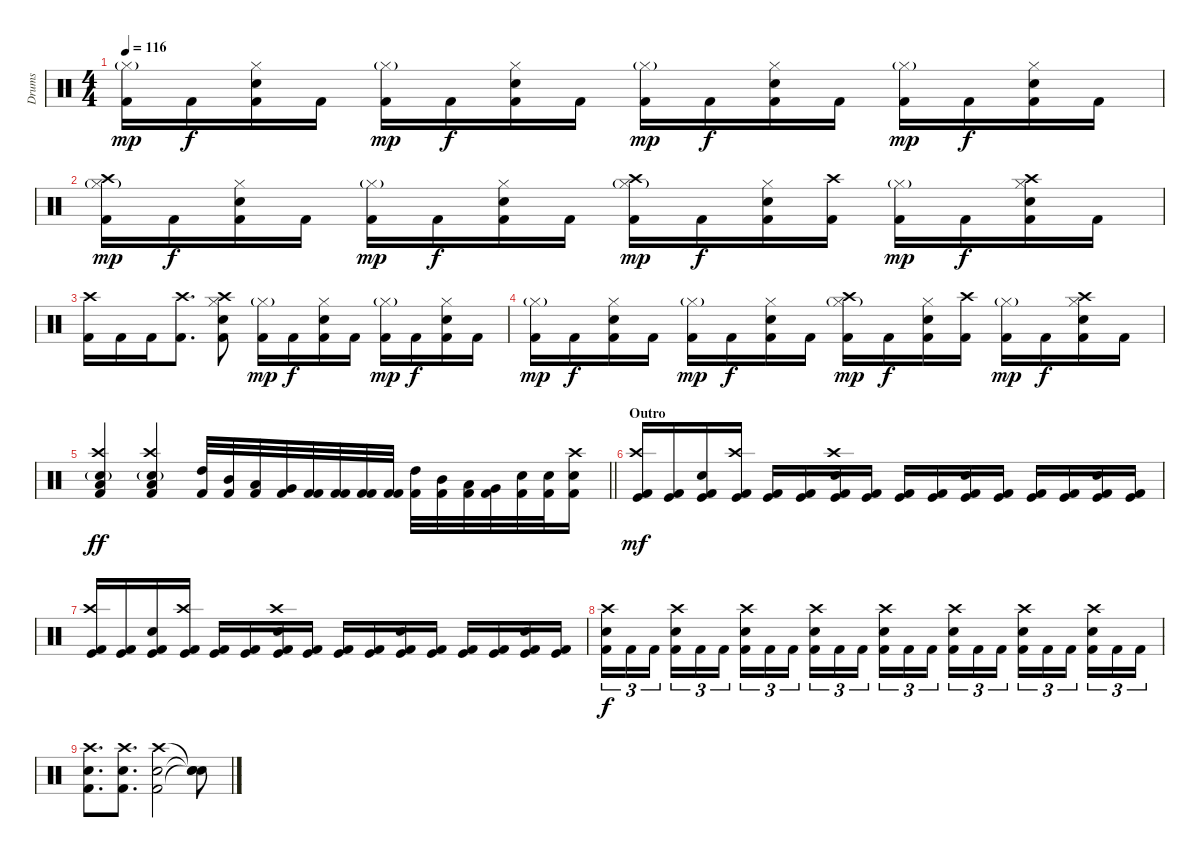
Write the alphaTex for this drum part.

\track ("Drums" "Drums") {instrument percussion}
\staff {score}
\articulation defaults
\ts (4 4)
\tempo 116
\clef neutral
\ks c
("Kick (hit) 2" "Hi-Hat (closed)"{g}).16{dy mp} "Kick (hit) 2".16{dy f} ("Kick (hit) 2" "Electric Snare (hit)" "Hi-Hat (closed)").16 "Kick (hit) 2".16 ("Kick (hit) 2" "Hi-Hat (closed)"{g}).16{dy mp} "Kick (hit) 2".16{dy f} ("Kick (hit) 2" "Electric Snare (hit)" "Hi-Hat (closed)").16 "Kick (hit) 2".16 ("Kick (hit) 2" "Hi-Hat (closed)"{g}).16{dy mp} "Kick (hit) 2".16{dy f} ("Kick (hit) 2" "Electric Snare (hit)" "Hi-Hat (closed)").16 "Kick (hit) 2".16 ("Kick (hit) 2" "Hi-Hat (closed)"{g}).16{dy mp} "Kick (hit) 2".16{dy f} ("Kick (hit) 2" "Electric Snare (hit)" "Hi-Hat (closed)").16 "Kick (hit) 2".16 |
("Kick (hit) 2" "Hi-Hat (closed)"{g} "Crash high (hit)").16{dy mp} "Kick (hit) 2".16{dy f} ("Kick (hit) 2" "Electric Snare (hit)" "Hi-Hat (closed)").16 "Kick (hit) 2".16 ("Kick (hit) 2" "Hi-Hat (closed)"{g}).16{dy mp} "Kick (hit) 2".16{dy f} ("Kick (hit) 2" "Electric Snare (hit)" "Hi-Hat (closed)").16 "Kick (hit) 2".16 ("Kick (hit) 2" "Hi-Hat (closed)"{g} "Crash high (hit)").16{dy mp} "Kick (hit) 2".16{dy f} ("Kick (hit) 2" "Electric Snare (hit)" "Hi-Hat (closed)").16 ("Kick (hit) 2" "Crash high (hit)").16 ("Kick (hit) 2" "Hi-Hat (closed)"{g}).16{dy mp} "Kick (hit) 2".16{dy f} ("Kick (hit) 2" "Electric Snare (hit)" "Hi-Hat (closed)" "Crash high (hit)").16 "Kick (hit) 2".16 |
("Kick (hit) 2" "Crash high (hit)").16 "Kick (hit) 2".16 "Kick (hit) 2".16 ("Kick (hit) 2" "Crash high (hit)").8{d} ("Kick (hit) 2" "Crash high (hit)" "Hi-Hat (closed)" "Electric Snare (hit)").8 ("Kick (hit) 2" "Hi-Hat (closed)"{g}).16{dy mp} "Kick (hit) 2".16{dy f} ("Kick (hit) 2" "Electric Snare (hit)" "Hi-Hat (closed)").16 "Kick (hit) 2".16 ("Kick (hit) 2" "Hi-Hat (closed)"{g}).16{dy mp} "Kick (hit) 2".16{dy f} ("Kick (hit) 2" "Electric Snare (hit)" "Hi-Hat (closed)").16 "Kick (hit) 2".16 |
("Kick (hit) 2" "Hi-Hat (closed)"{g}).16{dy mp} "Kick (hit) 2".16{dy f} ("Kick (hit) 2" "Electric Snare (hit)" "Hi-Hat (closed)").16 "Kick (hit) 2".16 ("Kick (hit) 2" "Hi-Hat (closed)"{g}).16{dy mp} "Kick (hit) 2".16{dy f} ("Kick (hit) 2" "Electric Snare (hit)" "Hi-Hat (closed)").16 "Kick (hit) 2".16 ("Kick (hit) 2" "Hi-Hat (closed)"{g} "Crash high (hit)").16{dy mp} "Kick (hit) 2".16{dy f} ("Kick (hit) 2" "Electric Snare (hit)" "Hi-Hat (closed)").16 ("Kick (hit) 2" "Crash high (hit)").16 ("Kick (hit) 2" "Hi-Hat (closed)"{g}).16{dy mp} "Kick (hit) 2".16{dy f} ("Kick (hit) 2" "Electric Snare (hit)" "Hi-Hat (closed)" "Crash high (hit)").16 "Kick (hit) 2".16 |
\barLineRight lightlight
("Kick (hit) 2" "Electric Snare (hit)"{g} "Low Tom (hit)" "Crash high (hit)").4{dy ff} ("Kick (hit) 2" "Electric Snare (hit)"{g} "Low Tom (hit)" "Crash high (hit)").4 ("Kick (hit) 2" "High Tom (hit)").32 ("Kick (hit) 2" "Mid Tom (hit)").32 ("Kick (hit) 2" "Low Tom (hit)").32 ("Kick (hit) 2" "Very Low Tom (hit)").32 ("Kick (hit) 2" "Kick (hit) 2").32 ("Kick (hit) 2" "Kick (hit) 2").32 ("Kick (hit) 2" "Kick (hit) 2").32 ("Kick (hit) 2" "Kick (hit) 2").32 ("Kick (hit) 2" "High Tom (hit)").32 ("Kick (hit) 2" "Mid Tom (hit)").32 ("Kick (hit) 2" "Low Tom (hit)").32 ("Kick (hit) 2" "Very Low Tom (hit)").32 ("Electric Snare (hit)" "Kick (hit) 2").32 ("Electric Snare (hit)" "Kick (hit) 2").32 ("Kick (hit) 2" "Electric Snare (hit)" "Crash high (hit)").16 |
\section ("" "Outro")
("Kick (hit) 2" "Kick (hit)" "Crash high (hit)").16{dy mf} ("Kick (hit) 2" "Kick (hit)").16 ("Kick (hit) 2" "Electric Snare (hit)" "Kick (hit)").16 ("Kick (hit) 2" "Kick (hit)" "Crash high (hit)").16 ("Kick (hit) 2" "Kick (hit)").16 ("Kick (hit) 2" "Kick (hit)").16 ("Kick (hit) 2" "Electric Snare (hit)" "Kick (hit)" "Crash high (hit)").16 ("Kick (hit) 2" "Kick (hit)").16 ("Kick (hit) 2" "Kick (hit)").16 ("Kick (hit) 2" "Kick (hit)").16 ("Kick (hit) 2" "Electric Snare (hit)" "Kick (hit)").16 ("Kick (hit) 2" "Kick (hit)").16 ("Kick (hit) 2" "Kick (hit)").16 ("Kick (hit) 2" "Kick (hit)").16 ("Kick (hit) 2" "Electric Snare (hit)" "Kick (hit)").16 ("Kick (hit) 2" "Kick (hit)").16 |
("Kick (hit) 2" "Kick (hit)" "Crash high (hit)").16 ("Kick (hit) 2" "Kick (hit)").16 ("Kick (hit) 2" "Electric Snare (hit)" "Kick (hit)").16 ("Kick (hit) 2" "Kick (hit)" "Crash high (hit)").16 ("Kick (hit) 2" "Kick (hit)").16 ("Kick (hit) 2" "Kick (hit)").16 ("Kick (hit) 2" "Electric Snare (hit)" "Kick (hit)" "Crash high (hit)").16 ("Kick (hit) 2" "Kick (hit)").16 ("Kick (hit) 2" "Kick (hit)").16 ("Kick (hit) 2" "Kick (hit)").16 ("Kick (hit) 2" "Electric Snare (hit)" "Kick (hit)").16 ("Kick (hit) 2" "Kick (hit)").16 ("Kick (hit) 2" "Kick (hit)").16 ("Kick (hit) 2" "Kick (hit)").16 ("Kick (hit) 2" "Electric Snare (hit)" "Kick (hit)").16 ("Kick (hit) 2" "Kick (hit)").16 |
("Kick (hit) 2" "Electric Snare (hit)" "Crash high (hit)").16{tu (3 2) dy f} "Kick (hit) 2".16{tu (3 2)} "Kick (hit) 2".16{tu (3 2) beam splitsecondary} ("Kick (hit) 2" "Electric Snare (hit)" "Crash high (hit)").16{tu (3 2)} "Kick (hit) 2".16{tu (3 2)} "Kick (hit) 2".16{tu (3 2)} ("Kick (hit) 2" "Electric Snare (hit)" "Crash high (hit)").16{tu (3 2)} "Kick (hit) 2".16{tu (3 2)} "Kick (hit) 2".16{tu (3 2) beam splitsecondary} ("Kick (hit) 2" "Electric Snare (hit)" "Crash high (hit)").16{tu (3 2)} "Kick (hit) 2".16{tu (3 2)} "Kick (hit) 2".16{tu (3 2)} ("Kick (hit) 2" "Electric Snare (hit)" "Crash high (hit)").16{tu (3 2)} "Kick (hit) 2".16{tu (3 2)} "Kick (hit) 2".16{tu (3 2) beam splitsecondary} ("Kick (hit) 2" "Electric Snare (hit)" "Crash high (hit)").16{tu (3 2)} "Kick (hit) 2".16{tu (3 2)} "Kick (hit) 2".16{tu (3 2)} ("Kick (hit) 2" "Electric Snare (hit)" "Crash high (hit)").16{tu (3 2)} "Kick (hit) 2".16{tu (3 2)} "Kick (hit) 2".16{tu (3 2) beam splitsecondary} ("Kick (hit) 2" "Electric Snare (hit)" "Crash high (hit)").16{tu (3 2)} "Kick (hit) 2".16{tu (3 2)} "Kick (hit) 2".16{tu (3 2)} |
("Kick (hit) 2" "Electric Snare (hit)" "Crash high (hit)").8{d} ("Kick (hit) 2" "Electric Snare (hit)" "Crash high (hit)").8{d} ("Kick (hit) 2" "Electric Snare (hit)" "Crash high (hit)").2 ("Snare (hit)"{t} "Snare (hit)"{t} "Snare (hit)"{t}).8
